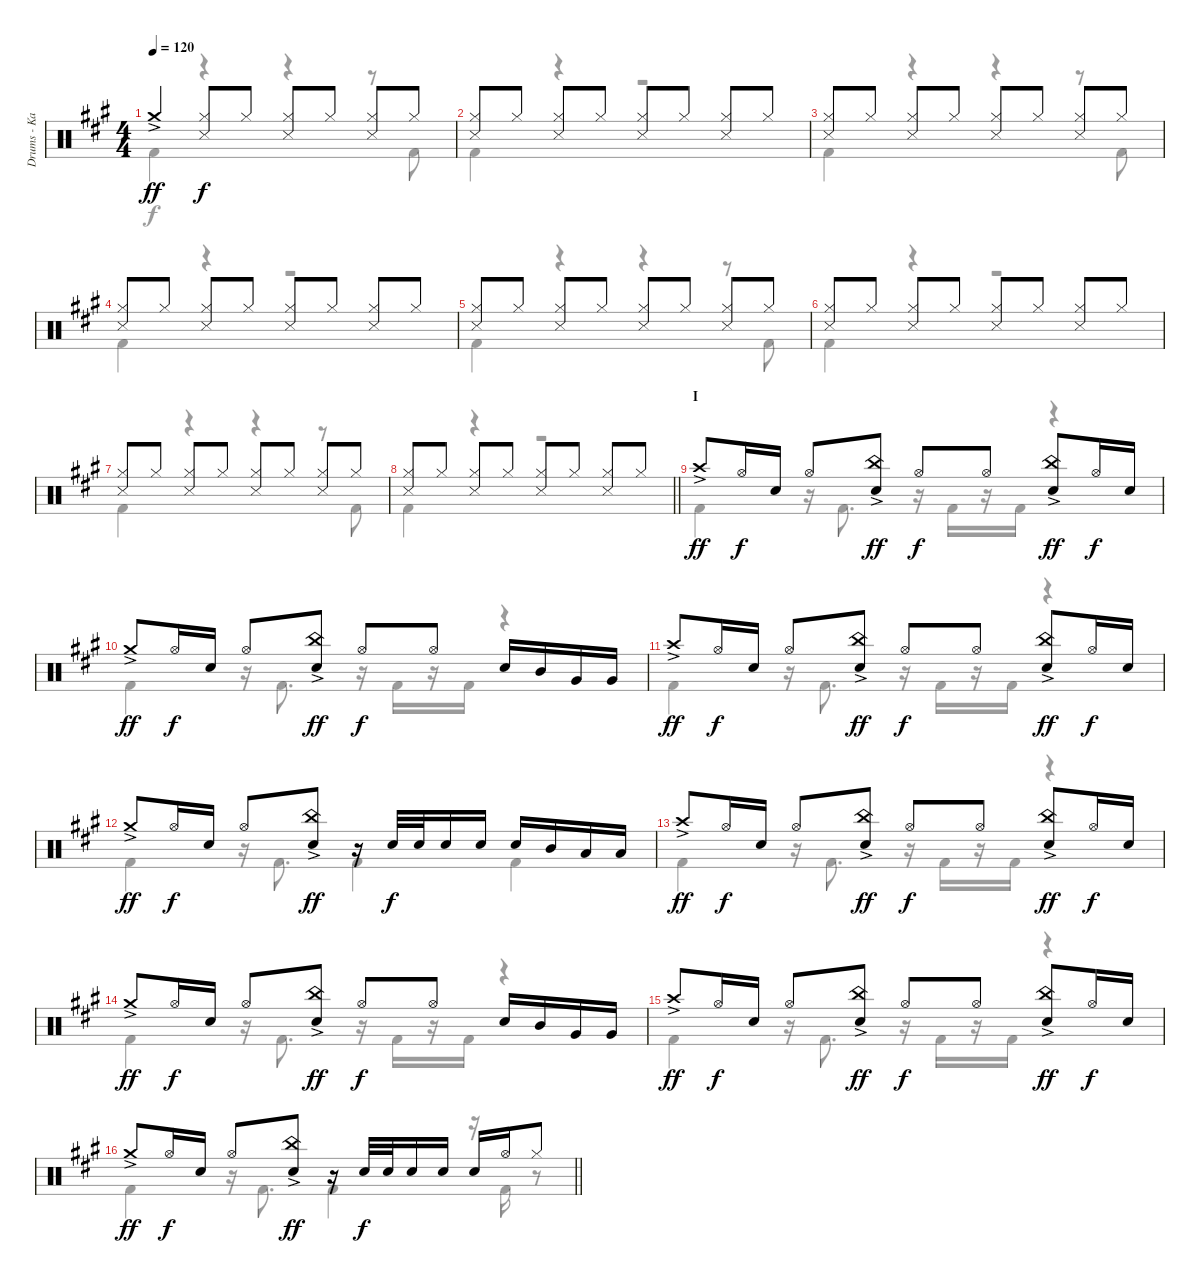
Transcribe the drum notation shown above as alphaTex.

\track ("Drums - Kai" "Drums - Ka") {instrument percussion}
\staff {score}
\articulation defaults
\voice
\ts (4 4)
\tempo 120
\clef neutral
\ks a "Crash medium (hit)"{ac}.4{dy ff}
("Hi-Hat (closed)" "Snare (side stick) 3").8{dy f} "Hi-Hat (closed)".8 ("Hi-Hat (closed)" "Snare (side stick) 3").8 "Hi-Hat (closed)".8 ("Hi-Hat (closed)" "Snare (side stick) 3").8 "Hi-Hat (closed)".8 |
("Hi-Hat (closed)" "Snare (side stick) 3").8 "Hi-Hat (closed)".8 ("Hi-Hat (closed)" "Snare (side stick) 3").8 "Hi-Hat (closed)".8 ("Hi-Hat (closed)" "Snare (side stick) 3").8 "Hi-Hat (closed)".8 ("Hi-Hat (closed)" "Snare (side stick) 3").8 "Hi-Hat (closed)".8 |
("Hi-Hat (closed)" "Snare (side stick) 3").8 "Hi-Hat (closed)".8 ("Hi-Hat (closed)" "Snare (side stick) 3").8 "Hi-Hat (closed)".8 ("Hi-Hat (closed)" "Snare (side stick) 3").8 "Hi-Hat (closed)".8 ("Hi-Hat (closed)" "Snare (side stick) 3").8 "Hi-Hat (closed)".8 |
("Hi-Hat (closed)" "Snare (side stick) 3").8 "Hi-Hat (closed)".8 ("Hi-Hat (closed)" "Snare (side stick) 3").8 "Hi-Hat (closed)".8 ("Hi-Hat (closed)" "Snare (side stick) 3").8 "Hi-Hat (closed)".8 ("Hi-Hat (closed)" "Snare (side stick) 3").8 "Hi-Hat (closed)".8 |
("Hi-Hat (closed)" "Snare (side stick) 3").8 "Hi-Hat (closed)".8 ("Hi-Hat (closed)" "Snare (side stick) 3").8 "Hi-Hat (closed)".8 ("Hi-Hat (closed)" "Snare (side stick) 3").8 "Hi-Hat (closed)".8 ("Hi-Hat (closed)" "Snare (side stick) 3").8 "Hi-Hat (closed)".8 |
("Hi-Hat (closed)" "Snare (side stick) 3").8 "Hi-Hat (closed)".8 ("Hi-Hat (closed)" "Snare (side stick) 3").8 "Hi-Hat (closed)".8 ("Hi-Hat (closed)" "Snare (side stick) 3").8 "Hi-Hat (closed)".8 ("Hi-Hat (closed)" "Snare (side stick) 3").8 "Hi-Hat (closed)".8 |
("Hi-Hat (closed)" "Snare (side stick) 3").8 "Hi-Hat (closed)".8 ("Hi-Hat (closed)" "Snare (side stick) 3").8 "Hi-Hat (closed)".8 ("Hi-Hat (closed)" "Snare (side stick) 3").8 "Hi-Hat (closed)".8 ("Hi-Hat (closed)" "Snare (side stick) 3").8 "Hi-Hat (closed)".8 |
\barLineRight lightlight
("Hi-Hat (closed)" "Snare (side stick) 3").8 "Hi-Hat (closed)".8 ("Hi-Hat (closed)" "Snare (side stick) 3").8 "Hi-Hat (closed)".8 ("Hi-Hat (closed)" "Snare (side stick) 3").8 "Hi-Hat (closed)".8 ("Hi-Hat (closed)" "Snare (side stick) 3").8 "Hi-Hat (closed)".8 |
\section ("" "I")
"Crash high (hit)"{ac}.8{dy ff} "Hi-Hat (open)".16{dy f} "Snare (hit) 2".16 "Hi-Hat (open)".8 ("China (hit)"{ac} "Snare (hit) 2").8{dy ff} "Hi-Hat (open)".8{dy f} "Hi-Hat (open)".8 ("China (hit)"{ac} "Snare (hit) 2").8{dy ff} "Hi-Hat (open)".16{dy f} "Snare (hit) 2".16 |
"Crash medium (hit)"{ac}.8{dy ff} "Hi-Hat (open)".16{dy f} "Snare (hit) 2".16 "Hi-Hat (open)".8 ("China (hit)"{ac} "Snare (hit) 2").8{dy ff} "Hi-Hat (open)".8{dy f} "Hi-Hat (open)".8 "Snare (hit) 2".16 "Mid Tom (hit)".16 "Very Low Tom (hit)".16 "Very Low Tom (hit)".16 |
"Crash high (hit)"{ac}.8{dy ff} "Hi-Hat (open)".16{dy f} "Snare (hit) 2".16 "Hi-Hat (open)".8 ("China (hit)"{ac} "Snare (hit) 2").8{dy ff} "Hi-Hat (open)".8{dy f} "Hi-Hat (open)".8 ("China (hit)"{ac} "Snare (hit) 2").8{dy ff} "Hi-Hat (open)".16{dy f} "Snare (hit) 2".16 |
"Crash medium (hit)"{ac}.8{dy ff} "Hi-Hat (open)".16{dy f} "Snare (hit) 2".16 "Hi-Hat (open)".8 ("China (hit)"{ac} "Snare (hit) 2").8{dy ff} r.16 "Snare (hit) 2".32{dy f} "Snare (hit) 2".32 "Snare (hit) 2".16 "Snare (hit) 2".16 "Snare (hit) 2".16 "Mid Tom (hit)".16 "Low Tom (hit)".16 "Low Tom (hit)".16 |
"Crash high (hit)"{ac}.8{dy ff} "Hi-Hat (open)".16{dy f} "Snare (hit) 2".16 "Hi-Hat (open)".8 ("China (hit)"{ac} "Snare (hit) 2").8{dy ff} "Hi-Hat (open)".8{dy f} "Hi-Hat (open)".8 ("China (hit)"{ac} "Snare (hit) 2").8{dy ff} "Hi-Hat (open)".16{dy f} "Snare (hit) 2".16 |
"Crash medium (hit)"{ac}.8{dy ff} "Hi-Hat (open)".16{dy f} "Snare (hit) 2".16 "Hi-Hat (open)".8 ("China (hit)"{ac} "Snare (hit) 2").8{dy ff} "Hi-Hat (open)".8{dy f} "Hi-Hat (open)".8 "Snare (hit) 2".16 "Mid Tom (hit)".16 "Very Low Tom (hit)".16 "Very Low Tom (hit)".16 |
"Crash high (hit)"{ac}.8{dy ff} "Hi-Hat (open)".16{dy f} "Snare (hit) 2".16 "Hi-Hat (open)".8 ("China (hit)"{ac} "Snare (hit) 2").8{dy ff} "Hi-Hat (open)".8{dy f} "Hi-Hat (open)".8 ("China (hit)"{ac} "Snare (hit) 2").8{dy ff} "Hi-Hat (open)".16{dy f} "Snare (hit) 2".16 |
\barLineRight lightlight "Crash medium (hit)"{ac}.8{dy ff} "Hi-Hat (open)".16{dy f} "Snare (hit) 2".16 "Hi-Hat (open)".8
("China (hit)"{ac} "Snare (hit) 2").8{dy ff} r.16 "Snare (hit) 2".32{dy f} "Snare (hit) 2".32 "Snare (hit) 2".16 "Snare (hit) 2".16 "Snare (hit) 2".16 "Hi-Hat (open)".16 "Hi-Hat (closed)".8
\voice
\clef neutral
\ottava regular
\simile none
\ks a "Kick (hit) 2".4{dy f}
r.4 r.4 r.8 "Kick (hit) 2".8 |
"Kick (hit) 2".4 r.4 r.2 |
"Kick (hit) 2".4 r.4 r.4 r.8 "Kick (hit) 2".8 |
"Kick (hit) 2".4 r.4 r.2 |
"Kick (hit) 2".4 r.4 r.4 r.8 "Kick (hit) 2".8 |
"Kick (hit) 2".4 r.4 r.2 |
"Kick (hit) 2".4 r.4 r.4 r.8 "Kick (hit) 2".8 |
\barLineRight lightlight "Kick (hit) 2".4
r.4 r.2 |
"Kick (hit) 2".4 r.16 "Kick (hit) 2".8{d} r.16 "Kick (hit) 2".16 r.16 "Kick (hit) 2".16 r.4 |
"Kick (hit) 2".4 r.16 "Kick (hit) 2".8{d} r.16 "Kick (hit) 2".16 r.16 "Kick (hit) 2".16 r.4 |
"Kick (hit) 2".4 r.16 "Kick (hit) 2".8{d} r.16 "Kick (hit) 2".16 r.16 "Kick (hit) 2".16 r.4 |
"Kick (hit) 2".4 r.16 "Kick (hit) 2".8{d} "Kick (hit) 2".4 "Kick (hit) 2".4 |
"Kick (hit) 2".4 r.16 "Kick (hit) 2".8{d} r.16 "Kick (hit) 2".16 r.16 "Kick (hit) 2".16 r.4 |
"Kick (hit) 2".4 r.16 "Kick (hit) 2".8{d} r.16 "Kick (hit) 2".16 r.16 "Kick (hit) 2".16 r.4 |
"Kick (hit) 2".4 r.16 "Kick (hit) 2".8{d} r.16 "Kick (hit) 2".16 r.16 "Kick (hit) 2".16 r.4 |
\barLineRight lightlight "Kick (hit) 2".4
r.16 "Kick (hit) 2".8{d} "Kick (hit) 2".4 r.16 "Kick (hit) 2".16 r.8
